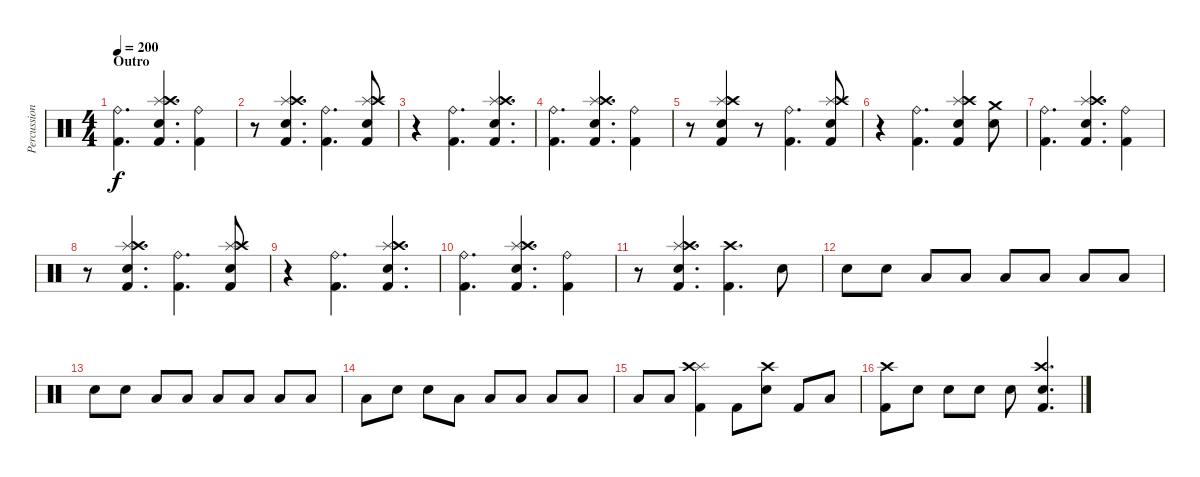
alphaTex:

\track ("Percussion" "Percussion") {instrument percussion}
\staff {score}
\articulation defaults
\ts (4 4)
\section ("" "Outro")
\tempo 200
\clef neutral
\ks c
("Ride (bell)" "Kick (hit) 2").4{d dy f} ("Splash (hit)" "Crash high (hit)" "Electric Snare (hit)" "Kick (hit) 2").4{d} ("Ride (bell)" "Kick (hit) 2").4 |
r.8 ("Splash (hit)" "Crash high (hit)" "Electric Snare (hit)" "Kick (hit) 2").4{d} ("Ride (bell)" "Kick (hit) 2").4{d} ("Splash (hit)" "Crash high (hit)" "Electric Snare (hit)" "Kick (hit) 2").8 |
r.4 ("Ride (bell)" "Kick (hit) 2").4{d} ("Splash (hit)" "Crash high (hit)" "Electric Snare (hit)" "Kick (hit) 2").4{d} |
("Ride (bell)" "Kick (hit) 2").4{d} ("Splash (hit)" "Crash high (hit)" "Electric Snare (hit)" "Kick (hit) 2").4{d} ("Ride (bell)" "Kick (hit) 2").4 |
r.8 ("Splash (hit)" "Crash high (hit)" "Electric Snare (hit)" "Kick (hit) 2").4 r.8 ("Ride (bell)" "Kick (hit) 2").4{d} ("Splash (hit)" "Crash high (hit)" "Electric Snare (hit)" "Kick (hit) 2").8 |
r.4 ("Ride (bell)" "Kick (hit) 2").4{d} ("Splash (hit)" "Crash high (hit)" "Electric Snare (hit)" "Kick (hit) 2").4 ("Crash medium (hit)" "Electric Snare (hit)").8 |
("Ride (bell)" "Kick (hit) 2").4{d} ("Splash (hit)" "Crash high (hit)" "Electric Snare (hit)" "Kick (hit) 2").4{d} ("Ride (bell)" "Kick (hit) 2").4 |
r.8 ("Splash (hit)" "Crash high (hit)" "Electric Snare (hit)" "Kick (hit) 2").4{d} ("Ride (bell)" "Kick (hit) 2").4{d} ("Splash (hit)" "Crash high (hit)" "Electric Snare (hit)" "Kick (hit) 2").8 |
r.4 ("Ride (bell)" "Kick (hit) 2").4{d} ("Splash (hit)" "Crash high (hit)" "Electric Snare (hit)" "Kick (hit) 2").4{d} |
("Ride (bell)" "Kick (hit) 2").4{d} ("Splash (hit)" "Crash high (hit)" "Electric Snare (hit)" "Kick (hit) 2").4{d} ("Ride (bell)" "Kick (hit) 2").4 |
r.8 ("Splash (hit)" "Crash high (hit)" "Electric Snare (hit)" "Kick (hit) 2").4{d} ("Crash high (hit)" "Kick (hit) 2").4{d} "Snare (hit) 2".8 |
"Snare (hit) 2".8 "Snare (hit) 2".8 "Low Tom (hit)".8 "Low Tom (hit)".8 "Low Tom (hit)".8 "Low Floor Tom (hit)".8 "Low Floor Tom (hit)".8 "Low Floor Tom (hit)".8 |
"Snare (hit) 2".8 "Snare (hit) 2".8 "Low Tom (hit)".8 "Low Tom (hit)".8 "Low Tom (hit)".8 "Low Floor Tom (hit)".8 "Low Floor Tom (hit)".8 "Low Floor Tom (hit)".8 |
"Low Floor Tom (hit)".8 "Snare (hit) 2".8 "Snare (hit) 2".8 "Low Tom (hit)".8 "Low Tom (hit)".8 "Low Tom (hit)".8 "Low Floor Tom (hit)".8 "Low Floor Tom (hit)".8 |
"Low Floor Tom (hit)".8 "Low Floor Tom (hit)".8 ("Splash (hit)" "Crash high (hit)" "Kick (hit) 2").4 "Kick (hit) 2".8 ("Crash high (hit)" "Electric Snare (hit)").8 "Kick (hit) 2".8 "Low Tom (hit)".8 |
("Crash high (hit)" "Kick (hit) 2").8 "Electric Snare (hit)".8 "Electric Snare (hit)".8 "Electric Snare (hit)".8 "Electric Snare (hit)".8 ("Crash high (hit)" "Electric Snare (hit)" "Kick (hit) 2").4{d}
